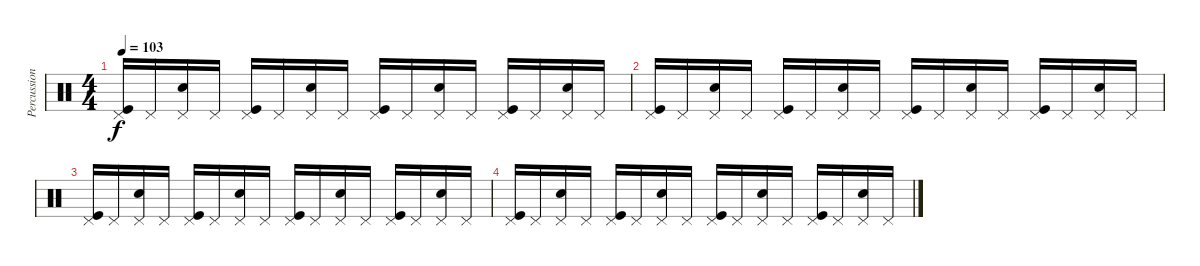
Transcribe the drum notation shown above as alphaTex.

\track ("Percussion" "Percussion") {instrument percussion}
\staff {score}
\articulation defaults
\ts (4 4)
\tempo 103
\clef neutral
\ks c
("Kick (hit)" "Pedal Hi-Hat (hit)").16{dy f} "Pedal Hi-Hat (hit)".16 ("Snare (hit) 2" "Pedal Hi-Hat (hit)").16 "Pedal Hi-Hat (hit)".16 ("Kick (hit)" "Pedal Hi-Hat (hit)").16 "Pedal Hi-Hat (hit)".16 ("Snare (hit) 2" "Pedal Hi-Hat (hit)").16 "Pedal Hi-Hat (hit)".16 ("Kick (hit)" "Pedal Hi-Hat (hit)").16 "Pedal Hi-Hat (hit)".16 ("Snare (hit) 2" "Pedal Hi-Hat (hit)").16 "Pedal Hi-Hat (hit)".16 ("Kick (hit)" "Pedal Hi-Hat (hit)").16 "Pedal Hi-Hat (hit)".16 ("Snare (hit) 2" "Pedal Hi-Hat (hit)").16 "Pedal Hi-Hat (hit)".16 |
("Kick (hit)" "Pedal Hi-Hat (hit)").16 "Pedal Hi-Hat (hit)".16 ("Snare (hit) 2" "Pedal Hi-Hat (hit)").16 "Pedal Hi-Hat (hit)".16 ("Kick (hit)" "Pedal Hi-Hat (hit)").16 "Pedal Hi-Hat (hit)".16 ("Snare (hit) 2" "Pedal Hi-Hat (hit)").16 "Pedal Hi-Hat (hit)".16 ("Kick (hit)" "Pedal Hi-Hat (hit)").16 "Pedal Hi-Hat (hit)".16 ("Snare (hit) 2" "Pedal Hi-Hat (hit)").16 "Pedal Hi-Hat (hit)".16 ("Kick (hit)" "Pedal Hi-Hat (hit)").16 "Pedal Hi-Hat (hit)".16 ("Snare (hit) 2" "Pedal Hi-Hat (hit)").16 "Pedal Hi-Hat (hit)".16 |
("Kick (hit)" "Pedal Hi-Hat (hit)").16 "Pedal Hi-Hat (hit)".16 ("Snare (hit) 2" "Pedal Hi-Hat (hit)").16 "Pedal Hi-Hat (hit)".16 ("Kick (hit)" "Pedal Hi-Hat (hit)").16 "Pedal Hi-Hat (hit)".16 ("Snare (hit) 2" "Pedal Hi-Hat (hit)").16 "Pedal Hi-Hat (hit)".16 ("Kick (hit)" "Pedal Hi-Hat (hit)").16 "Pedal Hi-Hat (hit)".16 ("Snare (hit) 2" "Pedal Hi-Hat (hit)").16 "Pedal Hi-Hat (hit)".16 ("Kick (hit)" "Pedal Hi-Hat (hit)").16 "Pedal Hi-Hat (hit)".16 ("Snare (hit) 2" "Pedal Hi-Hat (hit)").16 "Pedal Hi-Hat (hit)".16 |
("Kick (hit)" "Pedal Hi-Hat (hit)").16 "Pedal Hi-Hat (hit)".16 ("Snare (hit) 2" "Pedal Hi-Hat (hit)").16 "Pedal Hi-Hat (hit)".16 ("Kick (hit)" "Pedal Hi-Hat (hit)").16 "Pedal Hi-Hat (hit)".16 ("Snare (hit) 2" "Pedal Hi-Hat (hit)").16 "Pedal Hi-Hat (hit)".16 ("Kick (hit)" "Pedal Hi-Hat (hit)").16 "Pedal Hi-Hat (hit)".16 ("Snare (hit) 2" "Pedal Hi-Hat (hit)").16 "Pedal Hi-Hat (hit)".16 ("Kick (hit)" "Pedal Hi-Hat (hit)").16 "Pedal Hi-Hat (hit)".16 ("Snare (hit) 2" "Pedal Hi-Hat (hit)").16 "Pedal Hi-Hat (hit)".16
